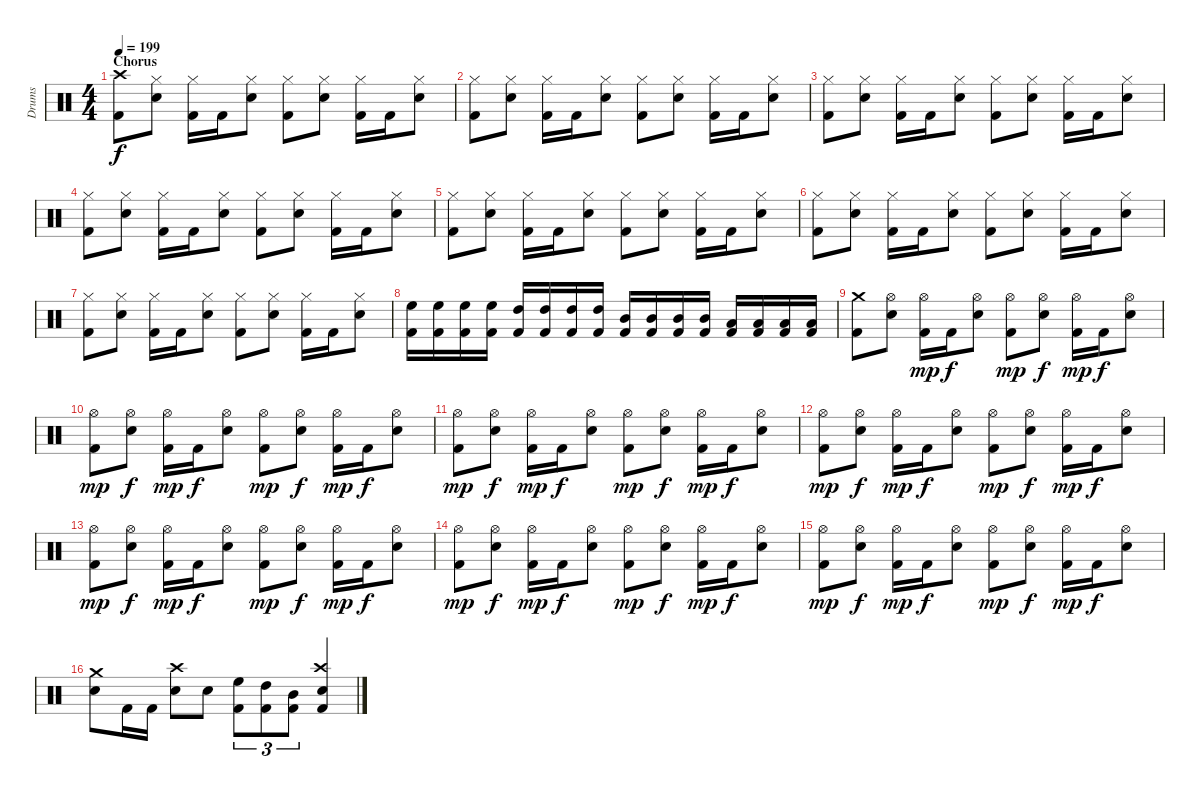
\track ("Drums" "Drums") {instrument percussion}
\staff {score}
\articulation defaults
\ts (4 4)
\section ("" "Chorus")
\tempo 199
\clef neutral
\ks c
("Kick (hit) 2" "Crash high (hit)").8{dy f} ("Snare (hit) 2" "Hi-Hat (closed)").8 ("Kick (hit) 2" "Hi-Hat (closed)").16 "Kick (hit) 2".16 ("Snare (hit) 2" "Hi-Hat (closed)").8 ("Kick (hit) 2" "Hi-Hat (closed)").8 ("Snare (hit) 2" "Hi-Hat (closed)").8 ("Kick (hit) 2" "Hi-Hat (closed)").16 "Kick (hit) 2".16 ("Snare (hit) 2" "Hi-Hat (closed)").8 |
("Kick (hit) 2" "Hi-Hat (closed)").8 ("Snare (hit) 2" "Hi-Hat (closed)").8 ("Kick (hit) 2" "Hi-Hat (closed)").16 "Kick (hit) 2".16 ("Snare (hit) 2" "Hi-Hat (closed)").8 ("Kick (hit) 2" "Hi-Hat (closed)").8 ("Snare (hit) 2" "Hi-Hat (closed)").8 ("Kick (hit) 2" "Hi-Hat (closed)").16 "Kick (hit) 2".16 ("Snare (hit) 2" "Hi-Hat (closed)").8 |
("Kick (hit) 2" "Hi-Hat (closed)").8 ("Snare (hit) 2" "Hi-Hat (closed)").8 ("Kick (hit) 2" "Hi-Hat (closed)").16 "Kick (hit) 2".16 ("Snare (hit) 2" "Hi-Hat (closed)").8 ("Kick (hit) 2" "Hi-Hat (closed)").8 ("Snare (hit) 2" "Hi-Hat (closed)").8 ("Kick (hit) 2" "Hi-Hat (closed)").16 "Kick (hit) 2".16 ("Snare (hit) 2" "Hi-Hat (closed)").8 |
("Kick (hit) 2" "Hi-Hat (closed)").8 ("Snare (hit) 2" "Hi-Hat (closed)").8 ("Kick (hit) 2" "Hi-Hat (closed)").16 "Kick (hit) 2".16 ("Snare (hit) 2" "Hi-Hat (closed)").8 ("Kick (hit) 2" "Hi-Hat (closed)").8 ("Snare (hit) 2" "Hi-Hat (closed)").8 ("Kick (hit) 2" "Hi-Hat (closed)").16 "Kick (hit) 2".16 ("Snare (hit) 2" "Hi-Hat (closed)").8 |
("Kick (hit) 2" "Hi-Hat (closed)").8 ("Snare (hit) 2" "Hi-Hat (closed)").8 ("Kick (hit) 2" "Hi-Hat (closed)").16 "Kick (hit) 2".16 ("Snare (hit) 2" "Hi-Hat (closed)").8 ("Kick (hit) 2" "Hi-Hat (closed)").8 ("Snare (hit) 2" "Hi-Hat (closed)").8 ("Kick (hit) 2" "Hi-Hat (closed)").16 "Kick (hit) 2".16 ("Snare (hit) 2" "Hi-Hat (closed)").8 |
("Kick (hit) 2" "Hi-Hat (closed)").8 ("Snare (hit) 2" "Hi-Hat (closed)").8 ("Kick (hit) 2" "Hi-Hat (closed)").16 "Kick (hit) 2".16 ("Snare (hit) 2" "Hi-Hat (closed)").8 ("Kick (hit) 2" "Hi-Hat (closed)").8 ("Snare (hit) 2" "Hi-Hat (closed)").8 ("Kick (hit) 2" "Hi-Hat (closed)").16 "Kick (hit) 2".16 ("Snare (hit) 2" "Hi-Hat (closed)").8 |
("Kick (hit) 2" "Hi-Hat (closed)").8 ("Snare (hit) 2" "Hi-Hat (closed)").8 ("Kick (hit) 2" "Hi-Hat (closed)").16 "Kick (hit) 2".16 ("Snare (hit) 2" "Hi-Hat (closed)").8 ("Kick (hit) 2" "Hi-Hat (closed)").8 ("Snare (hit) 2" "Hi-Hat (closed)").8 ("Kick (hit) 2" "Hi-Hat (closed)").16 "Kick (hit) 2".16 ("Snare (hit) 2" "Hi-Hat (closed)").8 |
("Kick (hit) 2" "High Floor Tom (hit)").16 ("Kick (hit) 2" "High Floor Tom (hit)").16 ("Kick (hit) 2" "High Floor Tom (hit)").16 ("Kick (hit) 2" "High Floor Tom (hit)").16 ("Kick (hit) 2" "High Tom (hit)").16 ("Kick (hit) 2" "High Tom (hit)").16 ("Kick (hit) 2" "High Tom (hit)").16 ("Kick (hit) 2" "High Tom (hit)").16 ("Kick (hit) 2" "Mid Tom (hit)").16 ("Kick (hit) 2" "Mid Tom (hit)").16 ("Kick (hit) 2" "Mid Tom (hit)").16 ("Kick (hit) 2" "Mid Tom (hit)").16 ("Kick (hit) 2" "Low Tom (hit)").16 ("Kick (hit) 2" "Low Tom (hit)").16 ("Kick (hit) 2" "Low Tom (hit)").16 ("Kick (hit) 2" "Low Tom (hit)").16 |
\section ("" "")
("Kick (hit) 2" "Crash medium (hit)").8 ("Snare (hit) 2" "Hi-Hat (open)").8 ("Kick (hit) 2" "Hi-Hat (open)").16{dy mp} "Kick (hit) 2".16{dy f} ("Snare (hit) 2" "Hi-Hat (open)").8 ("Kick (hit) 2" "Hi-Hat (open)").8{dy mp} ("Snare (hit) 2" "Hi-Hat (open)").8{dy f} ("Kick (hit) 2" "Hi-Hat (open)").16{dy mp} "Kick (hit) 2".16{dy f} ("Snare (hit) 2" "Hi-Hat (open)").8 |
("Kick (hit) 2" "Hi-Hat (open)").8{dy mp} ("Snare (hit) 2" "Hi-Hat (open)").8{dy f} ("Kick (hit) 2" "Hi-Hat (open)").16{dy mp} "Kick (hit) 2".16{dy f} ("Snare (hit) 2" "Hi-Hat (open)").8 ("Kick (hit) 2" "Hi-Hat (open)").8{dy mp} ("Snare (hit) 2" "Hi-Hat (open)").8{dy f} ("Kick (hit) 2" "Hi-Hat (open)").16{dy mp} "Kick (hit) 2".16{dy f} ("Snare (hit) 2" "Hi-Hat (open)").8 |
("Kick (hit) 2" "Hi-Hat (open)").8{dy mp} ("Snare (hit) 2" "Hi-Hat (open)").8{dy f} ("Kick (hit) 2" "Hi-Hat (open)").16{dy mp} "Kick (hit) 2".16{dy f} ("Snare (hit) 2" "Hi-Hat (open)").8 ("Kick (hit) 2" "Hi-Hat (open)").8{dy mp} ("Snare (hit) 2" "Hi-Hat (open)").8{dy f} ("Kick (hit) 2" "Hi-Hat (open)").16{dy mp} "Kick (hit) 2".16{dy f} ("Snare (hit) 2" "Hi-Hat (open)").8 |
("Kick (hit) 2" "Hi-Hat (open)").8{dy mp} ("Snare (hit) 2" "Hi-Hat (open)").8{dy f} ("Kick (hit) 2" "Hi-Hat (open)").16{dy mp} "Kick (hit) 2".16{dy f} ("Snare (hit) 2" "Hi-Hat (open)").8 ("Kick (hit) 2" "Hi-Hat (open)").8{dy mp} ("Snare (hit) 2" "Hi-Hat (open)").8{dy f} ("Kick (hit) 2" "Hi-Hat (open)").16{dy mp} "Kick (hit) 2".16{dy f} ("Snare (hit) 2" "Hi-Hat (open)").8 |
("Kick (hit) 2" "Hi-Hat (open)").8{dy mp} ("Snare (hit) 2" "Hi-Hat (open)").8{dy f} ("Kick (hit) 2" "Hi-Hat (open)").16{dy mp} "Kick (hit) 2".16{dy f} ("Snare (hit) 2" "Hi-Hat (open)").8 ("Kick (hit) 2" "Hi-Hat (open)").8{dy mp} ("Snare (hit) 2" "Hi-Hat (open)").8{dy f} ("Kick (hit) 2" "Hi-Hat (open)").16{dy mp} "Kick (hit) 2".16{dy f} ("Snare (hit) 2" "Hi-Hat (open)").8 |
("Kick (hit) 2" "Hi-Hat (open)").8{dy mp} ("Snare (hit) 2" "Hi-Hat (open)").8{dy f} ("Kick (hit) 2" "Hi-Hat (open)").16{dy mp} "Kick (hit) 2".16{dy f} ("Snare (hit) 2" "Hi-Hat (open)").8 ("Kick (hit) 2" "Hi-Hat (open)").8{dy mp} ("Snare (hit) 2" "Hi-Hat (open)").8{dy f} ("Kick (hit) 2" "Hi-Hat (open)").16{dy mp} "Kick (hit) 2".16{dy f} ("Snare (hit) 2" "Hi-Hat (open)").8 |
("Kick (hit) 2" "Hi-Hat (open)").8{dy mp} ("Snare (hit) 2" "Hi-Hat (open)").8{dy f} ("Kick (hit) 2" "Hi-Hat (open)").16{dy mp} "Kick (hit) 2".16{dy f} ("Snare (hit) 2" "Hi-Hat (open)").8 ("Kick (hit) 2" "Hi-Hat (open)").8{dy mp} ("Snare (hit) 2" "Hi-Hat (open)").8{dy f} ("Kick (hit) 2" "Hi-Hat (open)").16{dy mp} "Kick (hit) 2".16{dy f} ("Snare (hit) 2" "Hi-Hat (open)").8 |
("Snare (hit) 2" "Crash medium (hit)").8 "Kick (hit) 2".16 "Kick (hit) 2".16 ("Snare (hit) 2" "Crash high (hit)").8 "Snare (hit) 2".8 ("Kick (hit) 2" "High Floor Tom (hit)").8{tu (3 2)} ("Kick (hit) 2" "High Tom (hit)").8{tu (3 2)} ("Kick (hit) 2" "Mid Tom (hit)").8{tu (3 2)} ("Kick (hit) 2" "Snare (hit) 2" "Crash high (hit)").4
